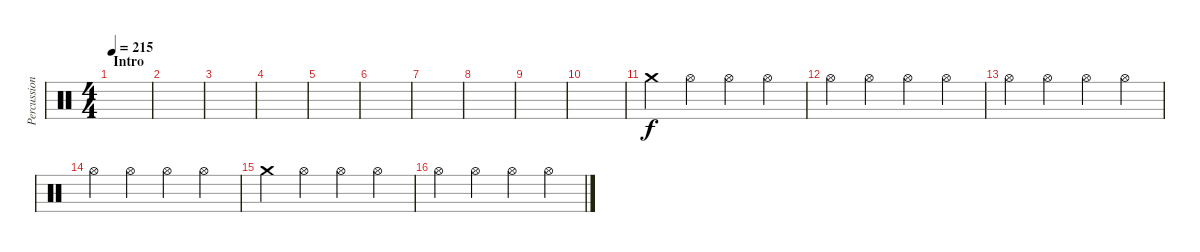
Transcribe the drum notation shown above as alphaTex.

\track ("Percussion" "Percussion") {instrument percussion}
\staff {score}
\articulation defaults
\ts (4 4)
\section ("" "Intro")
\tempo 215
\clef neutral
\ks c
|
|
|
|
|
|
|
|
|
|
"Crash medium (hit)".4 "Hi-Hat (open)".4 "Hi-Hat (open)".4 "Hi-Hat (open)".4 |
"Hi-Hat (open)".4 "Hi-Hat (open)".4 "Hi-Hat (open)".4 "Hi-Hat (open)".4 |
"Hi-Hat (open)".4 "Hi-Hat (open)".4 "Hi-Hat (open)".4 "Hi-Hat (open)".4 |
"Hi-Hat (open)".4 "Hi-Hat (open)".4 "Hi-Hat (open)".4 "Hi-Hat (open)".4 |
"Crash medium (hit)".4 "Hi-Hat (open)".4 "Hi-Hat (open)".4 "Hi-Hat (open)".4 |
"Hi-Hat (open)".4 "Hi-Hat (open)".4 "Hi-Hat (open)".4 "Hi-Hat (open)".4
